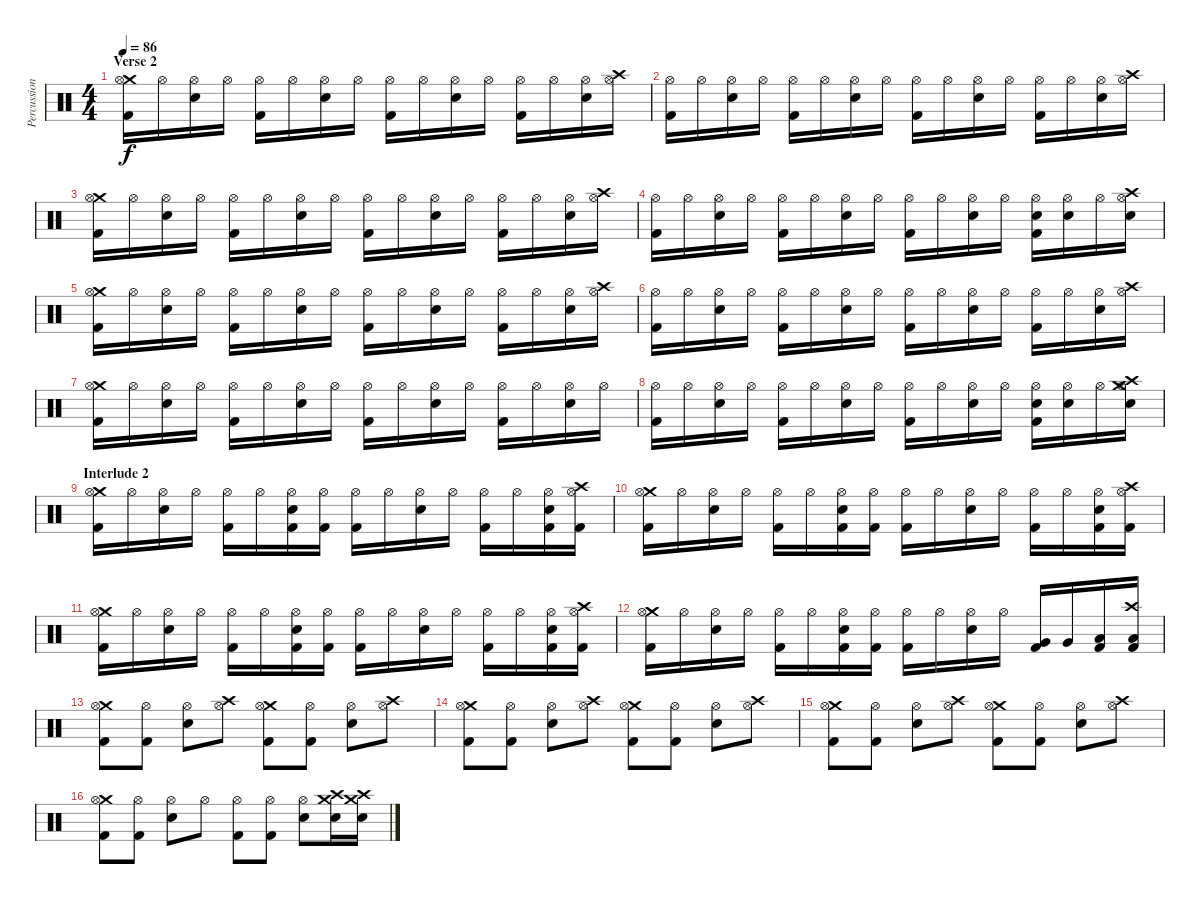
\track ("Percussion" "Percussion") {instrument percussion}
\staff {score}
\articulation defaults
\ts (4 4)
\section ("" "Verse 2")
\tempo 86
\clef neutral
\ks c
("Crash medium (hit)" "Hi-Hat (open)" "Kick (hit) 2").16{dy f} "Hi-Hat (open)".16 ("Hi-Hat (open)" "Electric Snare (hit)").16 "Hi-Hat (open)".16 ("Hi-Hat (open)" "Kick (hit) 2").16 "Hi-Hat (open)".16 ("Hi-Hat (open)" "Electric Snare (hit)").16 "Hi-Hat (open)".16 ("Hi-Hat (open)" "Kick (hit) 2").16 "Hi-Hat (open)".16 ("Hi-Hat (open)" "Electric Snare (hit)").16 "Hi-Hat (open)".16 ("Hi-Hat (open)" "Kick (hit) 2").16 "Hi-Hat (open)".16 ("Hi-Hat (open)" "Electric Snare (hit)").16 ("Crash high (hit)" "Hi-Hat (open)").16 |
("Hi-Hat (open)" "Kick (hit) 2").16 "Hi-Hat (open)".16 ("Hi-Hat (open)" "Electric Snare (hit)").16 "Hi-Hat (open)".16 ("Hi-Hat (open)" "Kick (hit) 2").16 "Hi-Hat (open)".16 ("Hi-Hat (open)" "Electric Snare (hit)").16 "Hi-Hat (open)".16 ("Hi-Hat (open)" "Kick (hit) 2").16 "Hi-Hat (open)".16 ("Hi-Hat (open)" "Electric Snare (hit)").16 "Hi-Hat (open)".16 ("Hi-Hat (open)" "Kick (hit) 2").16 "Hi-Hat (open)".16 ("Hi-Hat (open)" "Electric Snare (hit)").16 ("Crash high (hit)" "Hi-Hat (open)").16 |
("Crash medium (hit)" "Hi-Hat (open)" "Kick (hit) 2").16 "Hi-Hat (open)".16 ("Hi-Hat (open)" "Electric Snare (hit)").16 "Hi-Hat (open)".16 ("Hi-Hat (open)" "Kick (hit) 2").16 "Hi-Hat (open)".16 ("Hi-Hat (open)" "Electric Snare (hit)").16 "Hi-Hat (open)".16 ("Hi-Hat (open)" "Kick (hit) 2").16 "Hi-Hat (open)".16 ("Hi-Hat (open)" "Electric Snare (hit)").16 "Hi-Hat (open)".16 ("Hi-Hat (open)" "Kick (hit) 2").16 "Hi-Hat (open)".16 ("Hi-Hat (open)" "Electric Snare (hit)").16 ("Crash high (hit)" "Hi-Hat (open)").16 |
("Hi-Hat (open)" "Kick (hit) 2").16 "Hi-Hat (open)".16 ("Hi-Hat (open)" "Electric Snare (hit)").16 "Hi-Hat (open)".16 ("Hi-Hat (open)" "Kick (hit) 2").16 "Hi-Hat (open)".16 ("Hi-Hat (open)" "Electric Snare (hit)").16 "Hi-Hat (open)".16 ("Hi-Hat (open)" "Kick (hit) 2").16 "Hi-Hat (open)".16 ("Hi-Hat (open)" "Electric Snare (hit)").16 "Hi-Hat (open)".16 ("Hi-Hat (open)" "Electric Snare (hit)" "Kick (hit) 2").16 ("Hi-Hat (open)" "Electric Snare (hit)").16 "Hi-Hat (open)".16 ("Crash high (hit)" "Hi-Hat (open)" "Electric Snare (hit)").16 |
("Crash medium (hit)" "Hi-Hat (open)" "Kick (hit) 2").16 "Hi-Hat (open)".16 ("Hi-Hat (open)" "Electric Snare (hit)").16 "Hi-Hat (open)".16 ("Hi-Hat (open)" "Kick (hit) 2").16 "Hi-Hat (open)".16 ("Hi-Hat (open)" "Electric Snare (hit)").16 "Hi-Hat (open)".16 ("Hi-Hat (open)" "Kick (hit) 2").16 "Hi-Hat (open)".16 ("Hi-Hat (open)" "Electric Snare (hit)").16 "Hi-Hat (open)".16 ("Hi-Hat (open)" "Kick (hit) 2").16 "Hi-Hat (open)".16 ("Hi-Hat (open)" "Electric Snare (hit)").16 ("Crash high (hit)" "Hi-Hat (open)").16 |
("Hi-Hat (open)" "Kick (hit) 2").16 "Hi-Hat (open)".16 ("Hi-Hat (open)" "Electric Snare (hit)").16 "Hi-Hat (open)".16 ("Hi-Hat (open)" "Kick (hit) 2").16 "Hi-Hat (open)".16 ("Hi-Hat (open)" "Electric Snare (hit)").16 "Hi-Hat (open)".16 ("Hi-Hat (open)" "Kick (hit) 2").16 "Hi-Hat (open)".16 ("Hi-Hat (open)" "Electric Snare (hit)").16 "Hi-Hat (open)".16 ("Hi-Hat (open)" "Kick (hit) 2").16 "Hi-Hat (open)".16 ("Hi-Hat (open)" "Electric Snare (hit)").16 ("Crash high (hit)" "Hi-Hat (open)").16 |
("Crash medium (hit)" "Hi-Hat (open)" "Kick (hit) 2").16 "Hi-Hat (open)".16 ("Hi-Hat (open)" "Electric Snare (hit)").16 "Hi-Hat (open)".16 ("Hi-Hat (open)" "Kick (hit) 2").16 "Hi-Hat (open)".16 ("Hi-Hat (open)" "Electric Snare (hit)").16 "Hi-Hat (open)".16 ("Hi-Hat (open)" "Kick (hit) 2").16 "Hi-Hat (open)".16 ("Hi-Hat (open)" "Electric Snare (hit)").16 "Hi-Hat (open)".16 ("Hi-Hat (open)" "Kick (hit) 2").16 "Hi-Hat (open)".16 ("Hi-Hat (open)" "Electric Snare (hit)").16 "Hi-Hat (open)".16 |
("Hi-Hat (open)" "Kick (hit) 2").16 "Hi-Hat (open)".16 ("Hi-Hat (open)" "Electric Snare (hit)").16 "Hi-Hat (open)".16 ("Hi-Hat (open)" "Kick (hit) 2").16 "Hi-Hat (open)".16 ("Hi-Hat (open)" "Electric Snare (hit)").16 "Hi-Hat (open)".16 ("Hi-Hat (open)" "Kick (hit) 2").16 "Hi-Hat (open)".16 ("Hi-Hat (open)" "Electric Snare (hit)").16 "Hi-Hat (open)".16 ("Hi-Hat (open)" "Electric Snare (hit)" "Kick (hit) 2").16 ("Hi-Hat (open)" "Electric Snare (hit)").16 "Hi-Hat (open)".16 ("Crash medium (hit)" "Crash high (hit)" "Hi-Hat (open)" "Electric Snare (hit)").16 |
\section ("" "Interlude 2")
("Crash medium (hit)" "Hi-Hat (open)" "Kick (hit) 2").16 "Hi-Hat (open)".16 ("Hi-Hat (open)" "Electric Snare (hit)").16 "Hi-Hat (open)".16 ("Hi-Hat (open)" "Kick (hit) 2").16 "Hi-Hat (open)".16 ("Hi-Hat (open)" "Electric Snare (hit)" "Kick (hit) 2").16 ("Hi-Hat (open)" "Kick (hit) 2").16 ("Hi-Hat (open)" "Kick (hit) 2").16 "Hi-Hat (open)".16 ("Hi-Hat (open)" "Electric Snare (hit)").16 "Hi-Hat (open)".16 ("Hi-Hat (open)" "Kick (hit) 2").16 "Hi-Hat (open)".16 ("Hi-Hat (open)" "Electric Snare (hit)" "Kick (hit) 2").16 ("Crash high (hit)" "Hi-Hat (open)" "Kick (hit) 2").16 |
("Crash medium (hit)" "Hi-Hat (open)" "Kick (hit) 2").16 "Hi-Hat (open)".16 ("Hi-Hat (open)" "Electric Snare (hit)").16 "Hi-Hat (open)".16 ("Hi-Hat (open)" "Kick (hit) 2").16 "Hi-Hat (open)".16 ("Hi-Hat (open)" "Electric Snare (hit)" "Kick (hit) 2").16 ("Hi-Hat (open)" "Kick (hit) 2").16 ("Hi-Hat (open)" "Kick (hit) 2").16 "Hi-Hat (open)".16 ("Hi-Hat (open)" "Electric Snare (hit)").16 "Hi-Hat (open)".16 ("Hi-Hat (open)" "Kick (hit) 2").16 "Hi-Hat (open)".16 ("Hi-Hat (open)" "Electric Snare (hit)" "Kick (hit) 2").16 ("Crash high (hit)" "Hi-Hat (open)" "Kick (hit) 2").16 |
("Crash medium (hit)" "Hi-Hat (open)" "Kick (hit) 2").16 "Hi-Hat (open)".16 ("Hi-Hat (open)" "Electric Snare (hit)").16 "Hi-Hat (open)".16 ("Hi-Hat (open)" "Kick (hit) 2").16 "Hi-Hat (open)".16 ("Hi-Hat (open)" "Electric Snare (hit)" "Kick (hit) 2").16 ("Hi-Hat (open)" "Kick (hit) 2").16 ("Hi-Hat (open)" "Kick (hit) 2").16 "Hi-Hat (open)".16 ("Hi-Hat (open)" "Electric Snare (hit)").16 "Hi-Hat (open)".16 ("Hi-Hat (open)" "Kick (hit) 2").16 "Hi-Hat (open)".16 ("Hi-Hat (open)" "Electric Snare (hit)" "Kick (hit) 2").16 ("Crash high (hit)" "Hi-Hat (open)" "Kick (hit) 2").16 |
("Crash medium (hit)" "Hi-Hat (open)" "Kick (hit) 2").16 "Hi-Hat (open)".16 ("Hi-Hat (open)" "Electric Snare (hit)").16 "Hi-Hat (open)".16 ("Hi-Hat (open)" "Kick (hit) 2").16 "Hi-Hat (open)".16 ("Hi-Hat (open)" "Electric Snare (hit)" "Kick (hit) 2").16 ("Hi-Hat (open)" "Kick (hit) 2").16 ("Hi-Hat (open)" "Kick (hit) 2").16 "Hi-Hat (open)".16 ("Hi-Hat (open)" "Electric Snare (hit)").16 "Hi-Hat (open)".16 ("Very Low Tom (hit)" "Kick (hit) 2").16 "Very Low Tom (hit)".16 ("Low Floor Tom (hit)" "Kick (hit) 2").16 ("Crash high (hit)" "Low Floor Tom (hit)" "Kick (hit) 2").16 |
("Crash medium (hit)" "Hi-Hat (open)" "Kick (hit) 2").8 ("Hi-Hat (open)" "Kick (hit) 2").8 ("Hi-Hat (open)" "Electric Snare (hit)").8 ("Crash high (hit)" "Hi-Hat (open)").8 ("Crash medium (hit)" "Hi-Hat (open)" "Kick (hit) 2").8 ("Hi-Hat (open)" "Kick (hit) 2").8 ("Hi-Hat (open)" "Electric Snare (hit)").8 ("Crash high (hit)" "Hi-Hat (open)").8 |
("Crash medium (hit)" "Hi-Hat (open)" "Kick (hit) 2").8 ("Hi-Hat (open)" "Kick (hit) 2").8 ("Hi-Hat (open)" "Electric Snare (hit)").8 ("Crash high (hit)" "Hi-Hat (open)").8 ("Crash medium (hit)" "Hi-Hat (open)" "Kick (hit) 2").8 ("Hi-Hat (open)" "Kick (hit) 2").8 ("Hi-Hat (open)" "Electric Snare (hit)").8 ("Crash high (hit)" "Hi-Hat (open)").8 |
("Crash medium (hit)" "Hi-Hat (open)" "Kick (hit) 2").8 ("Hi-Hat (open)" "Kick (hit) 2").8 ("Hi-Hat (open)" "Electric Snare (hit)").8 ("Crash high (hit)" "Hi-Hat (open)").8 ("Crash medium (hit)" "Hi-Hat (open)" "Kick (hit) 2").8 ("Hi-Hat (open)" "Kick (hit) 2").8 ("Hi-Hat (open)" "Electric Snare (hit)").8 ("Crash high (hit)" "Hi-Hat (open)").8 |
("Crash medium (hit)" "Hi-Hat (open)" "Kick (hit) 2").8 ("Hi-Hat (open)" "Kick (hit) 2").8 ("Hi-Hat (open)" "Electric Snare (hit)").8 "Hi-Hat (open)".8 ("Hi-Hat (open)" "Kick (hit) 2").8 ("Hi-Hat (open)" "Kick (hit) 2").8 ("Hi-Hat (open)" "Electric Snare (hit)").8 ("Crash high (hit)" "Crash medium (hit)" "Electric Snare (hit)").16 ("Crash high (hit)" "Crash medium (hit)" "Electric Snare (hit)").16
